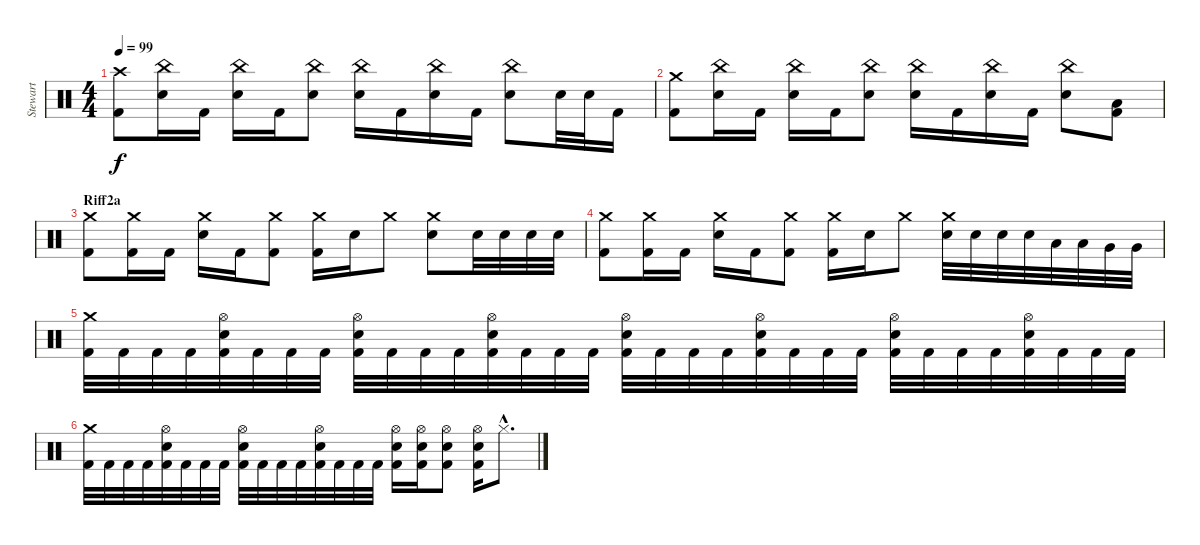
\track ("Stewart" "Stewart") {instrument percussion}
\staff {score}
\articulation defaults
\ts (4 4)
\tempo 99
\clef neutral
\ks c
("Crash high (hit)" "Kick (hit) 2").8{dy f} ("China (hit)" "Electric Snare (hit)").16 "Kick (hit) 2".16 ("China (hit)" "Electric Snare (hit)").16 "Kick (hit) 2".16 ("China (hit)" "Electric Snare (hit)").8 ("China (hit)" "Electric Snare (hit)").16 "Kick (hit) 2".16 ("China (hit)" "Electric Snare (hit)").16 "Kick (hit) 2".16 ("China (hit)" "Electric Snare (hit)").8 "Electric Snare (hit)".32 "Electric Snare (hit)".32 "Kick (hit) 2".16 |
("Crash medium (hit)" "Kick (hit) 2").8 ("China (hit)" "Electric Snare (hit)").16 "Kick (hit) 2".16 ("China (hit)" "Electric Snare (hit)").16 "Kick (hit) 2".16 ("China (hit)" "Electric Snare (hit)").8 ("China (hit)" "Electric Snare (hit)").16 "Kick (hit) 2".16 ("China (hit)" "Electric Snare (hit)").16 "Kick (hit) 2".16 ("China (hit)" "Electric Snare (hit)").8 ("Low Tom (hit)" "Kick (hit) 2").8 |
\section ("" "Riff2a")
("Crash medium (hit)" "Kick (hit) 2").8 ("Crash medium (hit)" "Kick (hit) 2").16 "Kick (hit) 2".16 ("Crash medium (hit)" "Electric Snare (hit)").16 "Kick (hit) 2".16 ("Crash medium (hit)" "Kick (hit) 2").8 ("Crash medium (hit)" "Kick (hit) 2").16 "Electric Snare (hit)".16 "Crash medium (hit)".8 ("Crash medium (hit)" "Electric Snare (hit)").8 "Electric Snare (hit)".32 "Electric Snare (hit)".32 "Electric Snare (hit)".32 "Electric Snare (hit)".32 |
("Crash medium (hit)" "Kick (hit) 2").8 ("Crash medium (hit)" "Kick (hit) 2").16 "Kick (hit) 2".16 ("Crash medium (hit)" "Electric Snare (hit)").16 "Kick (hit) 2".16 ("Crash medium (hit)" "Kick (hit) 2").8 ("Crash medium (hit)" "Kick (hit) 2").16 "Electric Snare (hit)".16 "Crash medium (hit)".8 ("Crash medium (hit)" "Electric Snare (hit)").32 "Electric Snare (hit)".32 "Electric Snare (hit)".32 "Electric Snare (hit)".32 "Low Tom (hit)".32 "Low Tom (hit)".32 "Very Low Tom (hit)".32 "Very Low Tom (hit)".32 |
("Crash medium (hit)" "Kick (hit) 2").32 "Kick (hit) 2".32 "Kick (hit) 2".32 "Kick (hit) 2".32 ("Hi-Hat (open)" "Electric Snare (hit)" "Kick (hit) 2").32 "Kick (hit) 2".32 "Kick (hit) 2".32 "Kick (hit) 2".32 ("Hi-Hat (open)" "Electric Snare (hit)" "Kick (hit) 2").32 "Kick (hit) 2".32 "Kick (hit) 2".32 "Kick (hit) 2".32 ("Hi-Hat (open)" "Electric Snare (hit)" "Kick (hit) 2").32 "Kick (hit) 2".32 "Kick (hit) 2".32 "Kick (hit) 2".32 ("Hi-Hat (open)" "Electric Snare (hit)" "Kick (hit) 2").32 "Kick (hit) 2".32 "Kick (hit) 2".32 "Kick (hit) 2".32 ("Hi-Hat (open)" "Electric Snare (hit)" "Kick (hit) 2").32 "Kick (hit) 2".32 "Kick (hit) 2".32 "Kick (hit) 2".32 ("Hi-Hat (open)" "Electric Snare (hit)" "Kick (hit) 2").32 "Kick (hit) 2".32 "Kick (hit) 2".32 "Kick (hit) 2".32 ("Hi-Hat (open)" "Electric Snare (hit)" "Kick (hit) 2").32 "Kick (hit) 2".32 "Kick (hit) 2".32 "Kick (hit) 2".32 |
("Crash medium (hit)" "Kick (hit) 2").32 "Kick (hit) 2".32 "Kick (hit) 2".32 "Kick (hit) 2".32 ("Hi-Hat (open)" "Electric Snare (hit)" "Kick (hit) 2").32 "Kick (hit) 2".32 "Kick (hit) 2".32 "Kick (hit) 2".32 ("Hi-Hat (open)" "Electric Snare (hit)" "Kick (hit) 2").32 "Kick (hit) 2".32 "Kick (hit) 2".32 "Kick (hit) 2".32 ("Hi-Hat (open)" "Electric Snare (hit)" "Kick (hit) 2").32 "Kick (hit) 2".32 "Kick (hit) 2".32 "Kick (hit) 2".32 ("Hi-Hat (open)" "Electric Snare (hit)" "Kick (hit) 2").16 ("Hi-Hat (open)" "Electric Snare (hit)" "Kick (hit) 2").16 ("Hi-Hat (open)" "Electric Snare (hit)" "Kick (hit) 2").8 ("Hi-Hat (open)" "Electric Snare (hit)" "Kick (hit) 2").16 "Hi-Hat (closed)"{hac}.8{d}
